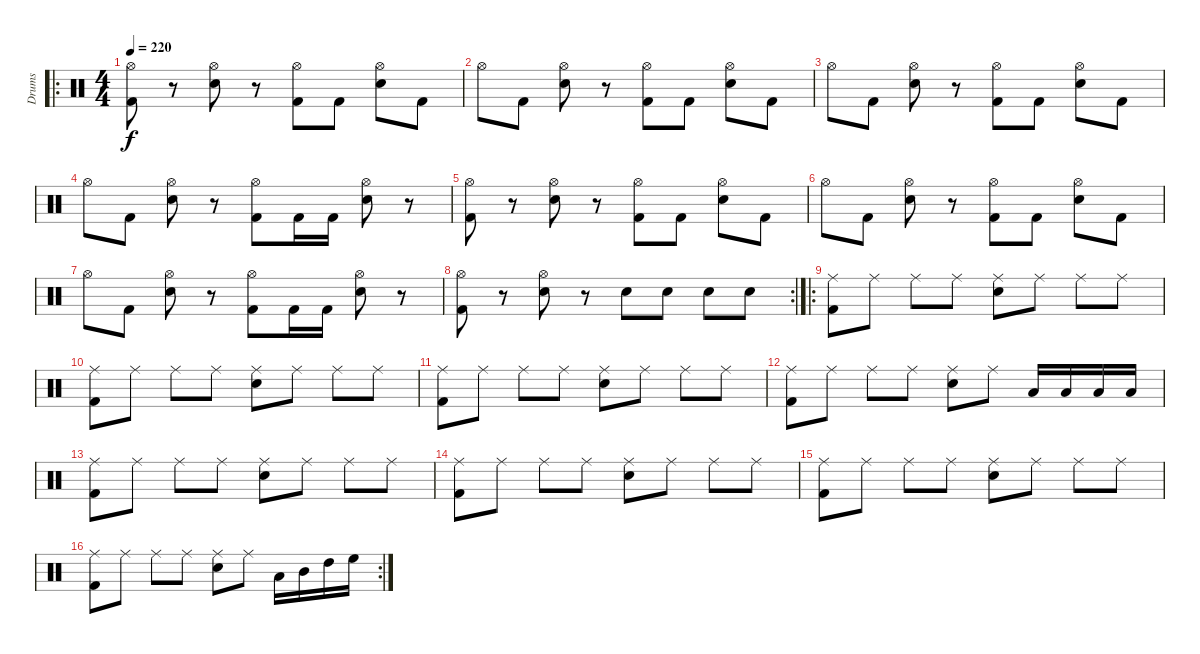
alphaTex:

\track ("Drums" "Drums") {instrument percussion}
\staff {score}
\articulation defaults
\ro
\ts (4 4)
\tempo 220
\clef neutral
\ks c
("Kick (hit) 2" "Hi-Hat (open)").8{dy f} r.8 ("Snare (hit) 2" "Hi-Hat (open)").8 r.8 ("Kick (hit) 2" "Hi-Hat (open)").8 "Kick (hit) 2".8 ("Snare (hit) 2" "Hi-Hat (open)").8 "Kick (hit) 2".8 |
"Hi-Hat (open)".8 "Kick (hit) 2".8 ("Snare (hit) 2" "Hi-Hat (open)").8 r.8 ("Kick (hit) 2" "Hi-Hat (open)").8 "Kick (hit) 2".8 ("Snare (hit) 2" "Hi-Hat (open)").8 "Kick (hit) 2".8 |
"Hi-Hat (open)".8 "Kick (hit) 2".8 ("Snare (hit) 2" "Hi-Hat (open)").8 r.8 ("Kick (hit) 2" "Hi-Hat (open)").8 "Kick (hit) 2".8 ("Snare (hit) 2" "Hi-Hat (open)").8 "Kick (hit) 2".8 |
"Hi-Hat (open)".8 "Kick (hit) 2".8 ("Snare (hit) 2" "Hi-Hat (open)").8 r.8 ("Kick (hit) 2" "Hi-Hat (open)").8 "Kick (hit) 2".16 "Kick (hit) 2".16 ("Snare (hit) 2" "Hi-Hat (open)").8 r.8 |
("Kick (hit) 2" "Hi-Hat (open)").8 r.8 ("Snare (hit) 2" "Hi-Hat (open)").8 r.8 ("Kick (hit) 2" "Hi-Hat (open)").8 "Kick (hit) 2".8 ("Snare (hit) 2" "Hi-Hat (open)").8 "Kick (hit) 2".8 |
"Hi-Hat (open)".8 "Kick (hit) 2".8 ("Snare (hit) 2" "Hi-Hat (open)").8 r.8 ("Kick (hit) 2" "Hi-Hat (open)").8 "Kick (hit) 2".8 ("Snare (hit) 2" "Hi-Hat (open)").8 "Kick (hit) 2".8 |
"Hi-Hat (open)".8 "Kick (hit) 2".8 ("Snare (hit) 2" "Hi-Hat (open)").8 r.8 ("Kick (hit) 2" "Hi-Hat (open)").8 "Kick (hit) 2".16 "Kick (hit) 2".16 ("Snare (hit) 2" "Hi-Hat (open)").8 r.8 |
\rc 2
("Kick (hit) 2" "Hi-Hat (open)").8 r.8 ("Snare (hit) 2" "Hi-Hat (open)").8 r.8 "Snare (hit) 2".8 "Snare (hit) 2".8 "Snare (hit) 2".8 "Snare (hit) 2".8 |
\ro
("Kick (hit) 2" "Ride (middle)").8 "Ride (middle)".8 "Ride (middle)".8 "Ride (middle)".8 ("Snare (hit) 2" "Ride (middle)").8 "Ride (middle)".8 "Ride (middle)".8 "Ride (middle)".8 |
("Kick (hit) 2" "Ride (middle)").8 "Ride (middle)".8 "Ride (middle)".8 "Ride (middle)".8 ("Snare (hit) 2" "Ride (middle)").8 "Ride (middle)".8 "Ride (middle)".8 "Ride (middle)".8 |
("Kick (hit) 2" "Ride (middle)").8 "Ride (middle)".8 "Ride (middle)".8 "Ride (middle)".8 ("Snare (hit) 2" "Ride (middle)").8 "Ride (middle)".8 "Ride (middle)".8 "Ride (middle)".8 |
("Kick (hit) 2" "Ride (middle)").8 "Ride (middle)".8 "Ride (middle)".8 "Ride (middle)".8 ("Snare (hit) 2" "Ride (middle)").8 "Ride (middle)".8 "Low Tom (hit)".16 "Low Tom (hit)".16 "Low Tom (hit)".16 "Low Tom (hit)".16 |
("Kick (hit) 2" "Ride (middle)").8 "Ride (middle)".8 "Ride (middle)".8 "Ride (middle)".8 ("Snare (hit) 2" "Ride (middle)").8 "Ride (middle)".8 "Ride (middle)".8 "Ride (middle)".8 |
("Kick (hit) 2" "Ride (middle)").8 "Ride (middle)".8 "Ride (middle)".8 "Ride (middle)".8 ("Snare (hit) 2" "Ride (middle)").8 "Ride (middle)".8 "Ride (middle)".8 "Ride (middle)".8 |
("Kick (hit) 2" "Ride (middle)").8 "Ride (middle)".8 "Ride (middle)".8 "Ride (middle)".8 ("Snare (hit) 2" "Ride (middle)").8 "Ride (middle)".8 "Ride (middle)".8 "Ride (middle)".8 |
\rc 2
("Kick (hit) 2" "Ride (middle)").8 "Ride (middle)".8 "Ride (middle)".8 "Ride (middle)".8 ("Snare (hit) 2" "Ride (middle)").8 "Ride (middle)".8 "Low Tom (hit)".16 "Mid Tom (hit)".16 "High Tom (hit)".16 "High Floor Tom (hit)".16
